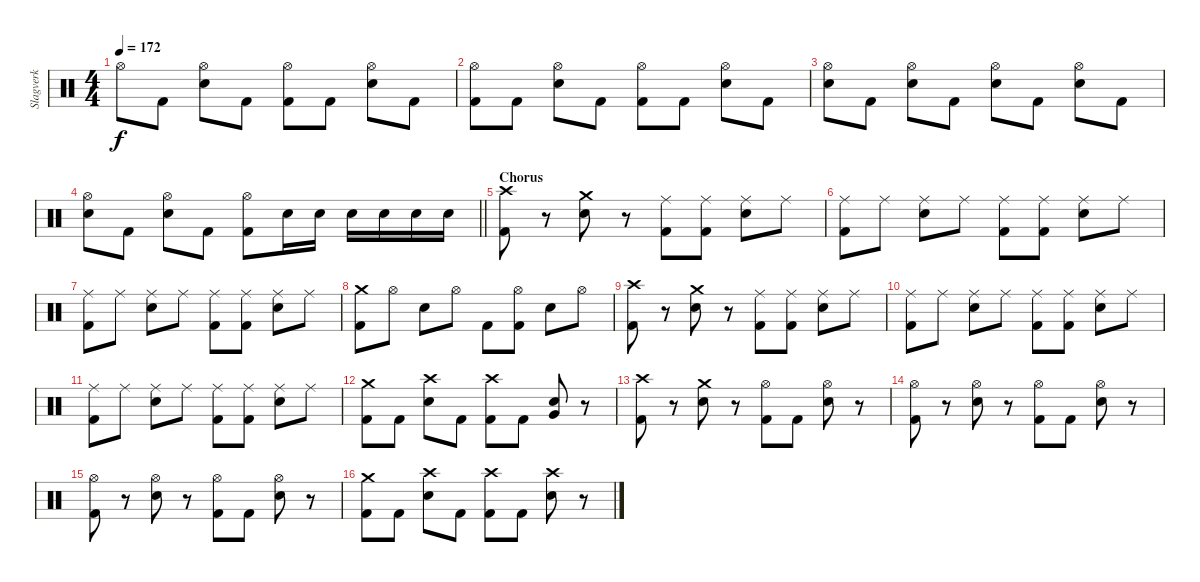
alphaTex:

\track ("Slagverk" "Slagverk") {instrument percussion}
\staff {score}
\articulation defaults
\ts (4 4)
\tempo 172
\clef neutral
\ks c "Hi-Hat (open)".8{dy f} "Kick (hit) 2".8
("Hi-Hat (open)" "Electric Snare (hit)").8 "Kick (hit) 2".8 ("Hi-Hat (open)" "Kick (hit) 2").8 "Kick (hit) 2".8 ("Hi-Hat (open)" "Electric Snare (hit)").8 "Kick (hit) 2".8 |
("Hi-Hat (open)" "Kick (hit) 2").8 "Kick (hit) 2".8 ("Hi-Hat (open)" "Electric Snare (hit)").8 "Kick (hit) 2".8 ("Hi-Hat (open)" "Kick (hit) 2").8 "Kick (hit) 2".8 ("Hi-Hat (open)" "Electric Snare (hit)").8 "Kick (hit) 2".8 |
("Hi-Hat (open)" "Electric Snare (hit)").8 "Kick (hit) 2".8 ("Hi-Hat (open)" "Electric Snare (hit)").8 "Kick (hit) 2".8 ("Hi-Hat (open)" "Electric Snare (hit)").8 "Kick (hit) 2".8 ("Hi-Hat (open)" "Electric Snare (hit)").8 "Kick (hit) 2".8 |
\barLineRight lightlight
("Hi-Hat (open)" "Electric Snare (hit)").8 "Kick (hit) 2".8 ("Hi-Hat (open)" "Electric Snare (hit)").8 "Kick (hit) 2".8 ("Hi-Hat (open)" "Kick (hit) 2").8 "Electric Snare (hit)".16 "Electric Snare (hit)".16 "Electric Snare (hit)".16 "Electric Snare (hit)".16 "Electric Snare (hit)".16 "Electric Snare (hit)".16 |
\section ("" "Chorus")
("Crash high (hit)" "Kick (hit) 2").8 r.8 ("Crash medium (hit)" "Electric Snare (hit)").8 r.8 ("Ride (middle)" "Kick (hit) 2").8 ("Ride (middle)" "Kick (hit) 2").8 ("Ride (middle)" "Electric Snare (hit)").8 "Ride (middle)".8 |
("Ride (middle)" "Kick (hit) 2").8 "Ride (middle)".8 ("Ride (middle)" "Electric Snare (hit)").8 "Ride (middle)".8 ("Ride (middle)" "Kick (hit) 2").8 ("Ride (middle)" "Kick (hit) 2").8 ("Ride (middle)" "Electric Snare (hit)").8 "Ride (middle)".8 |
("Ride (middle)" "Kick (hit) 2").8 "Ride (middle)".8 ("Ride (middle)" "Electric Snare (hit)").8 "Ride (middle)".8 ("Ride (middle)" "Kick (hit) 2").8 ("Ride (middle)" "Kick (hit) 2").8 ("Ride (middle)" "Electric Snare (hit)").8 "Ride (middle)".8 |
("Crash medium (hit)" "Kick (hit) 2").8 "Hi-Hat (open)".8 "Electric Snare (hit)".8 "Hi-Hat (open)".8 "Kick (hit) 2".8 ("Hi-Hat (open)" "Kick (hit) 2").8 "Electric Snare (hit)".8 "Hi-Hat (open)".8 |
("Crash high (hit)" "Kick (hit) 2").8 r.8 ("Crash medium (hit)" "Electric Snare (hit)").8 r.8 ("Ride (middle)" "Kick (hit) 2").8 ("Ride (middle)" "Kick (hit) 2").8 ("Ride (middle)" "Electric Snare (hit)").8 "Ride (middle)".8 |
("Ride (middle)" "Kick (hit) 2").8 "Ride (middle)".8 ("Ride (middle)" "Electric Snare (hit)").8 "Ride (middle)".8 ("Ride (middle)" "Kick (hit) 2").8 ("Ride (middle)" "Kick (hit) 2").8 ("Ride (middle)" "Electric Snare (hit)").8 "Ride (middle)".8 |
("Ride (middle)" "Kick (hit) 2").8 "Ride (middle)".8 ("Ride (middle)" "Electric Snare (hit)").8 "Ride (middle)".8 ("Ride (middle)" "Kick (hit) 2").8 ("Ride (middle)" "Kick (hit) 2").8 ("Ride (middle)" "Electric Snare (hit)").8 "Ride (middle)".8 |
("Crash medium (hit)" "Kick (hit) 2").8 "Kick (hit) 2".8 ("Crash high (hit)" "Electric Snare (hit)").8 "Kick (hit) 2".8 ("Crash high (hit)" "Kick (hit) 2").8 "Kick (hit) 2".8 ("Very Low Tom (hit)" "Electric Snare (hit)").8 r.8 |
("Crash high (hit)" "Kick (hit) 2").8 r.8 ("Crash medium (hit)" "Electric Snare (hit)").8 r.8 ("Hi-Hat (open)" "Kick (hit) 2").8 "Kick (hit) 2".8 ("Hi-Hat (open)" "Electric Snare (hit)").8 r.8 |
("Hi-Hat (open)" "Kick (hit) 2").8 r.8 ("Hi-Hat (open)" "Electric Snare (hit)").8 r.8 ("Hi-Hat (open)" "Kick (hit) 2").8 "Kick (hit) 2".8 ("Hi-Hat (open)" "Electric Snare (hit)").8 r.8 |
("Hi-Hat (open)" "Kick (hit) 2").8 r.8 ("Hi-Hat (open)" "Electric Snare (hit)").8 r.8 ("Hi-Hat (open)" "Kick (hit) 2").8 "Kick (hit) 2".8 ("Hi-Hat (open)" "Electric Snare (hit)").8 r.8 |
("Crash medium (hit)" "Kick (hit) 2").8 "Kick (hit) 2".8 ("Crash high (hit)" "Electric Snare (hit)").8 "Kick (hit) 2".8 ("Crash high (hit)" "Kick (hit) 2").8 "Kick (hit) 2".8 ("Crash high (hit)" "Electric Snare (hit)").8 r.8
